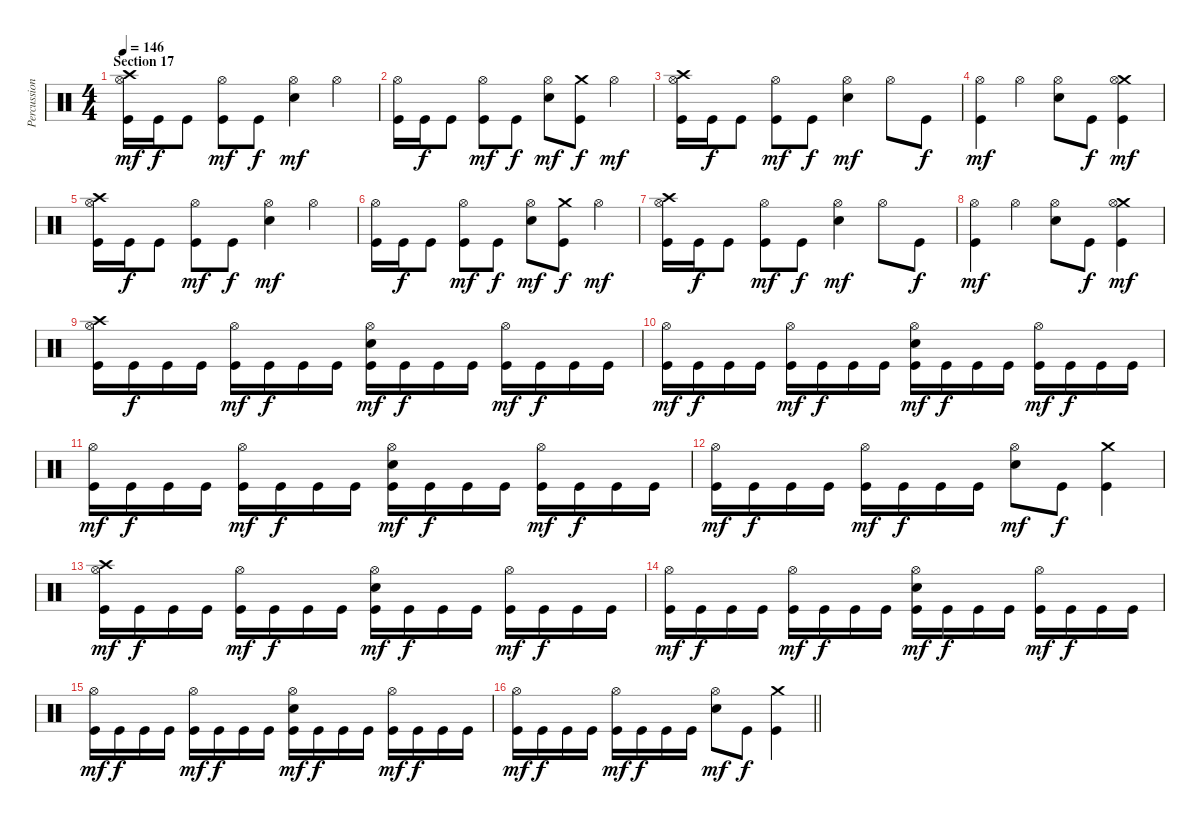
\track ("Percussion" "Percussion") {instrument percussion}
\staff {score}
\articulation defaults
\ts (4 4)
\section ("" "Section 17")
\tempo 146
\clef neutral
\ks c
("Crash high (hit)" "Hi-Hat (open)" "Kick (hit)").16{dy mf} "Kick (hit)".16{dy f} "Kick (hit)".8 ("Hi-Hat (open)" "Kick (hit)").8{dy mf} "Kick (hit)".8{dy f} ("Hi-Hat (open)" "Electric Snare (hit)").4{dy mf} "Hi-Hat (open)".4 |
("Hi-Hat (open)" "Kick (hit)").16 "Kick (hit)".16{dy f} "Kick (hit)".8 ("Hi-Hat (open)" "Kick (hit)").8{dy mf} "Kick (hit)".8{dy f} ("Hi-Hat (open)" "Electric Snare (hit)").8{dy mf} ("Crash medium (hit)" "Kick (hit)").8{dy f} "Hi-Hat (open)".4{dy mf} |
("Crash high (hit)" "Hi-Hat (open)" "Kick (hit)").16 "Kick (hit)".16{dy f} "Kick (hit)".8 ("Hi-Hat (open)" "Kick (hit)").8{dy mf} "Kick (hit)".8{dy f} ("Hi-Hat (open)" "Electric Snare (hit)").4{dy mf} "Hi-Hat (open)".8 "Kick (hit)".8{dy f} |
("Hi-Hat (open)" "Kick (hit)").4{dy mf} "Hi-Hat (open)".4 ("Hi-Hat (open)" "Electric Snare (hit)").8 "Kick (hit)".8{dy f} ("Crash medium (hit)" "Hi-Hat (open)" "Kick (hit)").4{dy mf} |
("Crash high (hit)" "Hi-Hat (open)" "Kick (hit)").16 "Kick (hit)".16{dy f} "Kick (hit)".8 ("Hi-Hat (open)" "Kick (hit)").8{dy mf} "Kick (hit)".8{dy f} ("Hi-Hat (open)" "Electric Snare (hit)").4{dy mf} "Hi-Hat (open)".4 |
("Hi-Hat (open)" "Kick (hit)").16 "Kick (hit)".16{dy f} "Kick (hit)".8 ("Hi-Hat (open)" "Kick (hit)").8{dy mf} "Kick (hit)".8{dy f} ("Hi-Hat (open)" "Electric Snare (hit)").8{dy mf} ("Crash medium (hit)" "Kick (hit)").8{dy f} "Hi-Hat (open)".4{dy mf} |
("Crash high (hit)" "Hi-Hat (open)" "Kick (hit)").16 "Kick (hit)".16{dy f} "Kick (hit)".8 ("Hi-Hat (open)" "Kick (hit)").8{dy mf} "Kick (hit)".8{dy f} ("Hi-Hat (open)" "Electric Snare (hit)").4{dy mf} "Hi-Hat (open)".8 "Kick (hit)".8{dy f} |
("Hi-Hat (open)" "Kick (hit)").4{dy mf} "Hi-Hat (open)".4 ("Hi-Hat (open)" "Electric Snare (hit)").8 "Kick (hit)".8{dy f} ("Crash medium (hit)" "Hi-Hat (open)" "Kick (hit)").4{dy mf} |
("Crash high (hit)" "Hi-Hat (open)" "Kick (hit)").16 "Kick (hit)".16{dy f} "Kick (hit)".16 "Kick (hit)".16 ("Hi-Hat (open)" "Kick (hit)").16{dy mf} "Kick (hit)".16{dy f} "Kick (hit)".16 "Kick (hit)".16 ("Hi-Hat (open)" "Electric Snare (hit)" "Kick (hit)").16{dy mf} "Kick (hit)".16{dy f} "Kick (hit)".16 "Kick (hit)".16 ("Hi-Hat (open)" "Kick (hit)").16{dy mf} "Kick (hit)".16{dy f} "Kick (hit)".16 "Kick (hit)".16 |
("Hi-Hat (open)" "Kick (hit)").16{dy mf} "Kick (hit)".16{dy f} "Kick (hit)".16 "Kick (hit)".16 ("Hi-Hat (open)" "Kick (hit)").16{dy mf} "Kick (hit)".16{dy f} "Kick (hit)".16 "Kick (hit)".16 ("Hi-Hat (open)" "Electric Snare (hit)" "Kick (hit)").16{dy mf} "Kick (hit)".16{dy f} "Kick (hit)".16 "Kick (hit)".16 ("Hi-Hat (open)" "Kick (hit)").16{dy mf} "Kick (hit)".16{dy f} "Kick (hit)".16 "Kick (hit)".16 |
("Hi-Hat (open)" "Kick (hit)").16{dy mf} "Kick (hit)".16{dy f} "Kick (hit)".16 "Kick (hit)".16 ("Hi-Hat (open)" "Kick (hit)").16{dy mf} "Kick (hit)".16{dy f} "Kick (hit)".16 "Kick (hit)".16 ("Hi-Hat (open)" "Electric Snare (hit)" "Kick (hit)").16{dy mf} "Kick (hit)".16{dy f} "Kick (hit)".16 "Kick (hit)".16 ("Hi-Hat (open)" "Kick (hit)").16{dy mf} "Kick (hit)".16{dy f} "Kick (hit)".16 "Kick (hit)".16 |
("Hi-Hat (open)" "Kick (hit)").16{dy mf} "Kick (hit)".16{dy f} "Kick (hit)".16 "Kick (hit)".16 ("Hi-Hat (open)" "Kick (hit)").16{dy mf} "Kick (hit)".16{dy f} "Kick (hit)".16 "Kick (hit)".16 ("Hi-Hat (open)" "Electric Snare (hit)").8{dy mf} "Kick (hit)".8{dy f} ("Crash medium (hit)" "Kick (hit)").4 |
("Crash high (hit)" "Hi-Hat (open)" "Kick (hit)").16{dy mf} "Kick (hit)".16{dy f} "Kick (hit)".16 "Kick (hit)".16 ("Hi-Hat (open)" "Kick (hit)").16{dy mf} "Kick (hit)".16{dy f} "Kick (hit)".16 "Kick (hit)".16 ("Hi-Hat (open)" "Electric Snare (hit)" "Kick (hit)").16{dy mf} "Kick (hit)".16{dy f} "Kick (hit)".16 "Kick (hit)".16 ("Hi-Hat (open)" "Kick (hit)").16{dy mf} "Kick (hit)".16{dy f} "Kick (hit)".16 "Kick (hit)".16 |
("Hi-Hat (open)" "Kick (hit)").16{dy mf} "Kick (hit)".16{dy f} "Kick (hit)".16 "Kick (hit)".16 ("Hi-Hat (open)" "Kick (hit)").16{dy mf} "Kick (hit)".16{dy f} "Kick (hit)".16 "Kick (hit)".16 ("Hi-Hat (open)" "Electric Snare (hit)" "Kick (hit)").16{dy mf} "Kick (hit)".16{dy f} "Kick (hit)".16 "Kick (hit)".16 ("Hi-Hat (open)" "Kick (hit)").16{dy mf} "Kick (hit)".16{dy f} "Kick (hit)".16 "Kick (hit)".16 |
("Hi-Hat (open)" "Kick (hit)").16{dy mf} "Kick (hit)".16{dy f} "Kick (hit)".16 "Kick (hit)".16 ("Hi-Hat (open)" "Kick (hit)").16{dy mf} "Kick (hit)".16{dy f} "Kick (hit)".16 "Kick (hit)".16 ("Hi-Hat (open)" "Electric Snare (hit)" "Kick (hit)").16{dy mf} "Kick (hit)".16{dy f} "Kick (hit)".16 "Kick (hit)".16 ("Hi-Hat (open)" "Kick (hit)").16{dy mf} "Kick (hit)".16{dy f} "Kick (hit)".16 "Kick (hit)".16 |
\barLineRight lightlight
("Hi-Hat (open)" "Kick (hit)").16{dy mf} "Kick (hit)".16{dy f} "Kick (hit)".16 "Kick (hit)".16 ("Hi-Hat (open)" "Kick (hit)").16{dy mf} "Kick (hit)".16{dy f} "Kick (hit)".16 "Kick (hit)".16 ("Hi-Hat (open)" "Electric Snare (hit)").8{dy mf} "Kick (hit)".8{dy f} ("Crash medium (hit)" "Kick (hit)").4
